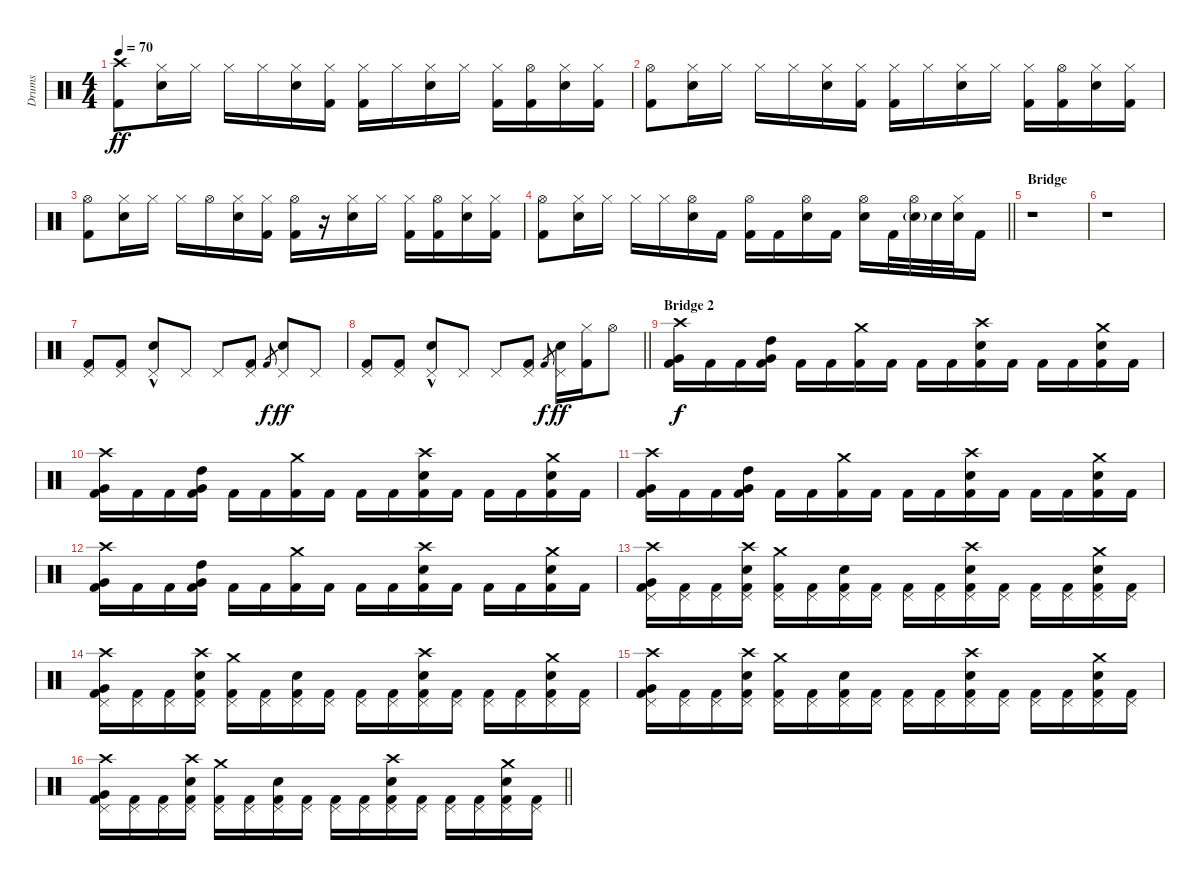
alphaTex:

\track ("Drums" "Drums") {instrument percussion}
\staff {score}
\articulation defaults
\ts (4 4)
\tempo 70
\clef neutral
\ks c
("Crash high (hit)" "Kick (hit) 2").8{dy ff} ("Hi-Hat (closed)" "Electric Snare (hit)").16 "Hi-Hat (closed)".16 "Hi-Hat (closed)".16 "Hi-Hat (closed)".16 ("Hi-Hat (closed)" "Electric Snare (hit)").16 ("Hi-Hat (closed)" "Kick (hit) 2").16 ("Hi-Hat (closed)" "Kick (hit) 2").16 "Hi-Hat (closed)".16 ("Hi-Hat (closed)" "Electric Snare (hit)").16 "Hi-Hat (closed)".16 ("Hi-Hat (closed)" "Kick (hit) 2").16 ("Hi-Hat (open)" "Kick (hit) 2").16 ("Hi-Hat (closed)" "Electric Snare (hit)").16 ("Hi-Hat (closed)" "Kick (hit) 2").16 |
("Hi-Hat (open)" "Kick (hit) 2").8 ("Hi-Hat (closed)" "Electric Snare (hit)").16 "Hi-Hat (closed)".16 "Hi-Hat (closed)".16 "Hi-Hat (closed)".16 ("Hi-Hat (closed)" "Electric Snare (hit)").16 ("Hi-Hat (closed)" "Kick (hit) 2").16 ("Hi-Hat (closed)" "Kick (hit) 2").16 "Hi-Hat (closed)".16 ("Hi-Hat (closed)" "Electric Snare (hit)").16 "Hi-Hat (closed)".16 ("Hi-Hat (closed)" "Kick (hit) 2").16 ("Hi-Hat (open)" "Kick (hit) 2").16 ("Hi-Hat (closed)" "Electric Snare (hit)").16 ("Hi-Hat (closed)" "Kick (hit) 2").16 |
("Hi-Hat (open)" "Kick (hit) 2").8 ("Hi-Hat (closed)" "Electric Snare (hit)").16 "Hi-Hat (closed)".16 "Hi-Hat (closed)".16 "Hi-Hat (open)".16 ("Hi-Hat (closed)" "Electric Snare (hit)").16 ("Hi-Hat (closed)" "Kick (hit) 2").16 ("Hi-Hat (open)" "Kick (hit) 2").16 r.16 ("Hi-Hat (closed)" "Electric Snare (hit)").16 "Hi-Hat (closed)".16 ("Hi-Hat (closed)" "Kick (hit) 2").16 ("Hi-Hat (open)" "Kick (hit) 2").16 ("Hi-Hat (closed)" "Electric Snare (hit)").16 ("Hi-Hat (closed)" "Kick (hit) 2").16 |
\barLineRight lightlight
("Hi-Hat (open)" "Kick (hit) 2").8 ("Hi-Hat (closed)" "Electric Snare (hit)").16 "Hi-Hat (closed)".16 "Hi-Hat (closed)".16 "Hi-Hat (closed)".16 ("Hi-Hat (open)" "Electric Snare (hit)").16 "Kick (hit) 2".16 ("Hi-Hat (open)" "Kick (hit) 2").16 "Kick (hit) 2".16 ("Hi-Hat (open)" "Electric Snare (hit)").16 "Kick (hit) 2".16 ("Hi-Hat (open)" "Electric Snare (hit)").16 "Kick (hit) 2".32 ("Hi-Hat (open)" "Electric Snare (hit)"{g}).32 "Electric Snare (hit)".32 ("Hi-Hat (closed)" "Electric Snare (hit)").32 "Kick (hit) 2".16 |
\section ("" "Bridge")
r.1 |
r.1 |
("Pedal Hi-Hat (hit)" "Kick (hit) 2").8 ("Pedal Hi-Hat (hit)" "Kick (hit) 2").8 ("Pedal Hi-Hat (hit)" "Electric Snare (hit)"{hac}).8 "Pedal Hi-Hat (hit)".8 "Pedal Hi-Hat (hit)".8 ("Pedal Hi-Hat (hit)" "Kick (hit) 2").8 "Kick (hit) 2".8{gr dy f} ("Pedal Hi-Hat (hit)" "Electric Snare (hit)").8{dy ff} "Pedal Hi-Hat (hit)".8 |
\barLineRight lightlight
("Pedal Hi-Hat (hit)" "Kick (hit) 2").8 ("Pedal Hi-Hat (hit)" "Kick (hit) 2").8 ("Pedal Hi-Hat (hit)" "Electric Snare (hit)"{hac}).8 "Pedal Hi-Hat (hit)".8 "Pedal Hi-Hat (hit)".8 ("Pedal Hi-Hat (hit)" "Kick (hit) 2").8 "Kick (hit) 2".8{gr dy f} ("Pedal Hi-Hat (hit)" "Electric Snare (hit)").16{dy ff} ("Hi-Hat (closed)" "Kick (hit) 2").16 "Hi-Hat (open)".8 |
\section ("" "Bridge 2")
("Crash high (hit)" "Very Low Tom (hit)" "Kick (hit) 2").16{dy f} "Kick (hit) 2".16 "Kick (hit) 2".16 ("High Tom (hit)" "Very Low Tom (hit)" "Kick (hit) 2").16 "Kick (hit) 2".16 "Kick (hit) 2".16 ("Crash medium (hit)" "Kick (hit) 2").16 "Kick (hit) 2".16 "Kick (hit) 2".16 "Kick (hit) 2".16 ("Crash high (hit)" "Electric Snare (hit)" "Kick (hit) 2").16 "Kick (hit) 2".16 "Kick (hit) 2".16 "Kick (hit) 2".16 ("Crash medium (hit)" "Electric Snare (hit)" "Kick (hit) 2").16 "Kick (hit) 2".16 |
("Crash high (hit)" "Very Low Tom (hit)" "Kick (hit) 2").16 "Kick (hit) 2".16 "Kick (hit) 2".16 ("High Tom (hit)" "Very Low Tom (hit)" "Kick (hit) 2").16 "Kick (hit) 2".16 "Kick (hit) 2".16 ("Crash medium (hit)" "Kick (hit) 2").16 "Kick (hit) 2".16 "Kick (hit) 2".16 "Kick (hit) 2".16 ("Crash high (hit)" "Electric Snare (hit)" "Kick (hit) 2").16 "Kick (hit) 2".16 "Kick (hit) 2".16 "Kick (hit) 2".16 ("Crash medium (hit)" "Electric Snare (hit)" "Kick (hit) 2").16 "Kick (hit) 2".16 |
("Crash high (hit)" "Very Low Tom (hit)" "Kick (hit) 2").16 "Kick (hit) 2".16 "Kick (hit) 2".16 ("High Tom (hit)" "Very Low Tom (hit)" "Kick (hit) 2").16 "Kick (hit) 2".16 "Kick (hit) 2".16 ("Crash medium (hit)" "Kick (hit) 2").16 "Kick (hit) 2".16 "Kick (hit) 2".16 "Kick (hit) 2".16 ("Crash high (hit)" "Electric Snare (hit)" "Kick (hit) 2").16 "Kick (hit) 2".16 "Kick (hit) 2".16 "Kick (hit) 2".16 ("Crash medium (hit)" "Electric Snare (hit)" "Kick (hit) 2").16 "Kick (hit) 2".16 |
("Crash high (hit)" "Very Low Tom (hit)" "Kick (hit) 2").16 "Kick (hit) 2".16 "Kick (hit) 2".16 ("High Tom (hit)" "Very Low Tom (hit)" "Kick (hit) 2").16 "Kick (hit) 2".16 "Kick (hit) 2".16 ("Crash medium (hit)" "Kick (hit) 2").16 "Kick (hit) 2".16 "Kick (hit) 2".16 "Kick (hit) 2".16 ("Crash high (hit)" "Electric Snare (hit)" "Kick (hit) 2").16 "Kick (hit) 2".16 "Kick (hit) 2".16 "Kick (hit) 2".16 ("Crash medium (hit)" "Electric Snare (hit)" "Kick (hit) 2").16 "Kick (hit) 2".16 |
("Crash high (hit)" "Pedal Hi-Hat (hit)" "Very Low Tom (hit)" "Kick (hit) 2").16 ("Pedal Hi-Hat (hit)" "Kick (hit) 2").16 ("Pedal Hi-Hat (hit)" "Kick (hit) 2").16 ("Crash high (hit)" "Pedal Hi-Hat (hit)" "Electric Snare (hit)" "Kick (hit) 2").16 ("Crash medium (hit)" "Pedal Hi-Hat (hit)" "Kick (hit) 2").16 ("Pedal Hi-Hat (hit)" "Kick (hit) 2").16 ("Pedal Hi-Hat (hit)" "Electric Snare (hit)" "Kick (hit) 2").16 ("Pedal Hi-Hat (hit)" "Kick (hit) 2").16 ("Pedal Hi-Hat (hit)" "Kick (hit) 2").16 ("Pedal Hi-Hat (hit)" "Kick (hit) 2").16 ("Crash high (hit)" "Pedal Hi-Hat (hit)" "Electric Snare (hit)" "Kick (hit) 2").16 ("Pedal Hi-Hat (hit)" "Kick (hit) 2").16 ("Pedal Hi-Hat (hit)" "Kick (hit) 2").16 ("Pedal Hi-Hat (hit)" "Kick (hit) 2").16 ("Crash medium (hit)" "Pedal Hi-Hat (hit)" "Electric Snare (hit)" "Kick (hit) 2").16 ("Pedal Hi-Hat (hit)" "Kick (hit) 2").16 |
("Crash high (hit)" "Pedal Hi-Hat (hit)" "Very Low Tom (hit)" "Kick (hit) 2").16 ("Pedal Hi-Hat (hit)" "Kick (hit) 2").16 ("Pedal Hi-Hat (hit)" "Kick (hit) 2").16 ("Crash high (hit)" "Pedal Hi-Hat (hit)" "Electric Snare (hit)" "Kick (hit) 2").16 ("Crash medium (hit)" "Pedal Hi-Hat (hit)" "Kick (hit) 2").16 ("Pedal Hi-Hat (hit)" "Kick (hit) 2").16 ("Pedal Hi-Hat (hit)" "Electric Snare (hit)" "Kick (hit) 2").16 ("Pedal Hi-Hat (hit)" "Kick (hit) 2").16 ("Pedal Hi-Hat (hit)" "Kick (hit) 2").16 ("Pedal Hi-Hat (hit)" "Kick (hit) 2").16 ("Crash high (hit)" "Pedal Hi-Hat (hit)" "Electric Snare (hit)" "Kick (hit) 2").16 ("Pedal Hi-Hat (hit)" "Kick (hit) 2").16 ("Pedal Hi-Hat (hit)" "Kick (hit) 2").16 ("Pedal Hi-Hat (hit)" "Kick (hit) 2").16 ("Crash medium (hit)" "Pedal Hi-Hat (hit)" "Electric Snare (hit)" "Kick (hit) 2").16 ("Pedal Hi-Hat (hit)" "Kick (hit) 2").16 |
("Crash high (hit)" "Pedal Hi-Hat (hit)" "Very Low Tom (hit)" "Kick (hit) 2").16 ("Pedal Hi-Hat (hit)" "Kick (hit) 2").16 ("Pedal Hi-Hat (hit)" "Kick (hit) 2").16 ("Crash high (hit)" "Pedal Hi-Hat (hit)" "Electric Snare (hit)" "Kick (hit) 2").16 ("Crash medium (hit)" "Pedal Hi-Hat (hit)" "Kick (hit) 2").16 ("Pedal Hi-Hat (hit)" "Kick (hit) 2").16 ("Pedal Hi-Hat (hit)" "Electric Snare (hit)" "Kick (hit) 2").16 ("Pedal Hi-Hat (hit)" "Kick (hit) 2").16 ("Pedal Hi-Hat (hit)" "Kick (hit) 2").16 ("Pedal Hi-Hat (hit)" "Kick (hit) 2").16 ("Crash high (hit)" "Pedal Hi-Hat (hit)" "Electric Snare (hit)" "Kick (hit) 2").16 ("Pedal Hi-Hat (hit)" "Kick (hit) 2").16 ("Pedal Hi-Hat (hit)" "Kick (hit) 2").16 ("Pedal Hi-Hat (hit)" "Kick (hit) 2").16 ("Crash medium (hit)" "Pedal Hi-Hat (hit)" "Electric Snare (hit)" "Kick (hit) 2").16 ("Pedal Hi-Hat (hit)" "Kick (hit) 2").16 |
\barLineRight lightlight
("Crash high (hit)" "Pedal Hi-Hat (hit)" "Very Low Tom (hit)" "Kick (hit) 2").16 ("Pedal Hi-Hat (hit)" "Kick (hit) 2").16 ("Pedal Hi-Hat (hit)" "Kick (hit) 2").16 ("Crash high (hit)" "Pedal Hi-Hat (hit)" "Electric Snare (hit)" "Kick (hit) 2").16 ("Crash medium (hit)" "Pedal Hi-Hat (hit)" "Kick (hit) 2").16 ("Pedal Hi-Hat (hit)" "Kick (hit) 2").16 ("Pedal Hi-Hat (hit)" "Electric Snare (hit)" "Kick (hit) 2").16 ("Pedal Hi-Hat (hit)" "Kick (hit) 2").16 ("Pedal Hi-Hat (hit)" "Kick (hit) 2").16 ("Pedal Hi-Hat (hit)" "Kick (hit) 2").16 ("Crash high (hit)" "Pedal Hi-Hat (hit)" "Electric Snare (hit)" "Kick (hit) 2").16 ("Pedal Hi-Hat (hit)" "Kick (hit) 2").16 ("Pedal Hi-Hat (hit)" "Kick (hit) 2").16 ("Pedal Hi-Hat (hit)" "Kick (hit) 2").16 ("Crash medium (hit)" "Pedal Hi-Hat (hit)" "Electric Snare (hit)" "Kick (hit) 2").16 ("Pedal Hi-Hat (hit)" "Kick (hit) 2").16
